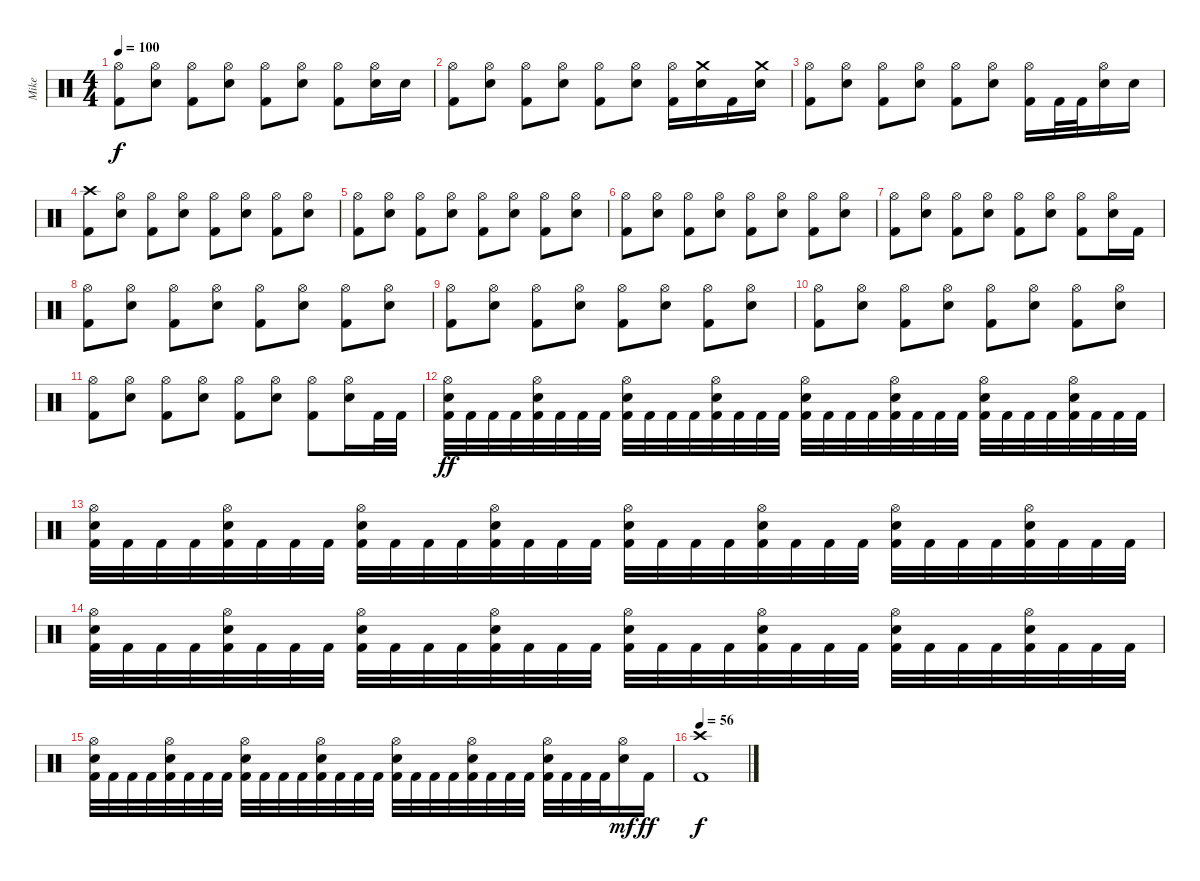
\track ("Mike" "Mike") {instrument percussion}
\staff {score}
\articulation defaults
\ts (4 4)
\tempo 100
\clef neutral
\ks c
("Hi-Hat (open)" "Kick (hit) 2").8{dy f} ("Hi-Hat (open)" "Snare (hit) 2").8 ("Hi-Hat (open)" "Kick (hit) 2").8 ("Hi-Hat (open)" "Snare (hit) 2").8 ("Hi-Hat (open)" "Kick (hit) 2").8 ("Hi-Hat (open)" "Snare (hit) 2").8 ("Hi-Hat (open)" "Kick (hit) 2").8 ("Hi-Hat (open)" "Snare (hit) 2").16 "Snare (hit) 2".16 |
("Hi-Hat (open)" "Kick (hit) 2").8 ("Hi-Hat (open)" "Snare (hit) 2").8 ("Hi-Hat (open)" "Kick (hit) 2").8 ("Hi-Hat (open)" "Snare (hit) 2").8 ("Hi-Hat (open)" "Kick (hit) 2").8 ("Hi-Hat (open)" "Snare (hit) 2").8 ("Hi-Hat (open)" "Kick (hit) 2").16 ("Crash medium (hit)" "Snare (hit) 2").16 "Kick (hit) 2".16 ("Crash medium (hit)" "Snare (hit) 2").16 |
("Hi-Hat (open)" "Kick (hit) 2").8 ("Hi-Hat (open)" "Snare (hit) 2").8 ("Hi-Hat (open)" "Kick (hit) 2").8 ("Hi-Hat (open)" "Snare (hit) 2").8 ("Hi-Hat (open)" "Kick (hit) 2").8 ("Hi-Hat (open)" "Snare (hit) 2").8 ("Hi-Hat (open)" "Kick (hit) 2").16 "Kick (hit) 2".32 "Kick (hit) 2".32 ("Hi-Hat (open)" "Snare (hit) 2").16 "Snare (hit) 2".16 |
("Crash high (hit)" "Kick (hit) 2").8 ("Hi-Hat (open)" "Snare (hit) 2").8 ("Hi-Hat (open)" "Kick (hit) 2").8 ("Hi-Hat (open)" "Snare (hit) 2").8 ("Hi-Hat (open)" "Kick (hit) 2").8 ("Hi-Hat (open)" "Snare (hit) 2").8 ("Hi-Hat (open)" "Kick (hit) 2").8 ("Hi-Hat (open)" "Snare (hit) 2").8 |
("Hi-Hat (open)" "Kick (hit) 2").8 ("Hi-Hat (open)" "Snare (hit) 2").8 ("Hi-Hat (open)" "Kick (hit) 2").8 ("Hi-Hat (open)" "Snare (hit) 2").8 ("Hi-Hat (open)" "Kick (hit) 2").8 ("Hi-Hat (open)" "Snare (hit) 2").8 ("Hi-Hat (open)" "Kick (hit) 2").8 ("Hi-Hat (open)" "Snare (hit) 2").8 |
("Hi-Hat (open)" "Kick (hit) 2").8 ("Hi-Hat (open)" "Snare (hit) 2").8 ("Hi-Hat (open)" "Kick (hit) 2").8 ("Hi-Hat (open)" "Snare (hit) 2").8 ("Hi-Hat (open)" "Kick (hit) 2").8 ("Hi-Hat (open)" "Snare (hit) 2").8 ("Hi-Hat (open)" "Kick (hit) 2").8 ("Hi-Hat (open)" "Snare (hit) 2").8 |
("Hi-Hat (open)" "Kick (hit) 2").8 ("Hi-Hat (open)" "Snare (hit) 2").8 ("Hi-Hat (open)" "Kick (hit) 2").8 ("Hi-Hat (open)" "Snare (hit) 2").8 ("Hi-Hat (open)" "Kick (hit) 2").8 ("Hi-Hat (open)" "Snare (hit) 2").8 ("Hi-Hat (open)" "Kick (hit) 2").8 ("Hi-Hat (open)" "Snare (hit) 2").16 "Kick (hit) 2".16 |
("Hi-Hat (open)" "Kick (hit) 2").8 ("Hi-Hat (open)" "Snare (hit) 2").8 ("Hi-Hat (open)" "Kick (hit) 2").8 ("Hi-Hat (open)" "Snare (hit) 2").8 ("Hi-Hat (open)" "Kick (hit) 2").8 ("Hi-Hat (open)" "Snare (hit) 2").8 ("Hi-Hat (open)" "Kick (hit) 2").8 ("Hi-Hat (open)" "Snare (hit) 2").8 |
("Hi-Hat (open)" "Kick (hit) 2").8 ("Hi-Hat (open)" "Snare (hit) 2").8 ("Hi-Hat (open)" "Kick (hit) 2").8 ("Hi-Hat (open)" "Snare (hit) 2").8 ("Hi-Hat (open)" "Kick (hit) 2").8 ("Hi-Hat (open)" "Snare (hit) 2").8 ("Hi-Hat (open)" "Kick (hit) 2").8 ("Hi-Hat (open)" "Snare (hit) 2").8 |
("Hi-Hat (open)" "Kick (hit) 2").8 ("Hi-Hat (open)" "Snare (hit) 2").8 ("Hi-Hat (open)" "Kick (hit) 2").8 ("Hi-Hat (open)" "Snare (hit) 2").8 ("Hi-Hat (open)" "Kick (hit) 2").8 ("Hi-Hat (open)" "Snare (hit) 2").8 ("Hi-Hat (open)" "Kick (hit) 2").8 ("Hi-Hat (open)" "Snare (hit) 2").8 |
("Hi-Hat (open)" "Kick (hit) 2").8 ("Hi-Hat (open)" "Snare (hit) 2").8 ("Hi-Hat (open)" "Kick (hit) 2").8 ("Hi-Hat (open)" "Snare (hit) 2").8 ("Hi-Hat (open)" "Kick (hit) 2").8 ("Hi-Hat (open)" "Snare (hit) 2").8 ("Hi-Hat (open)" "Kick (hit) 2").8 ("Hi-Hat (open)" "Snare (hit) 2").16 "Kick (hit) 2".32 "Kick (hit) 2".32 |
("Hi-Hat (open)" "Snare (hit) 2" "Kick (hit) 2").32{dy ff} "Kick (hit) 2".32 "Kick (hit) 2".32 "Kick (hit) 2".32 ("Hi-Hat (open)" "Snare (hit) 2" "Kick (hit) 2").32 "Kick (hit) 2".32 "Kick (hit) 2".32 "Kick (hit) 2".32 ("Hi-Hat (open)" "Snare (hit) 2" "Kick (hit) 2").32 "Kick (hit) 2".32 "Kick (hit) 2".32 "Kick (hit) 2".32 ("Hi-Hat (open)" "Snare (hit) 2" "Kick (hit) 2").32 "Kick (hit) 2".32 "Kick (hit) 2".32 "Kick (hit) 2".32 ("Hi-Hat (open)" "Snare (hit) 2" "Kick (hit) 2").32 "Kick (hit) 2".32 "Kick (hit) 2".32 "Kick (hit) 2".32 ("Hi-Hat (open)" "Snare (hit) 2" "Kick (hit) 2").32 "Kick (hit) 2".32 "Kick (hit) 2".32 "Kick (hit) 2".32 ("Hi-Hat (open)" "Snare (hit) 2" "Kick (hit) 2").32 "Kick (hit) 2".32 "Kick (hit) 2".32 "Kick (hit) 2".32 ("Hi-Hat (open)" "Snare (hit) 2" "Kick (hit) 2").32 "Kick (hit) 2".32 "Kick (hit) 2".32 "Kick (hit) 2".32 |
("Hi-Hat (open)" "Snare (hit) 2" "Kick (hit) 2").32 "Kick (hit) 2".32 "Kick (hit) 2".32 "Kick (hit) 2".32 ("Hi-Hat (open)" "Snare (hit) 2" "Kick (hit) 2").32 "Kick (hit) 2".32 "Kick (hit) 2".32 "Kick (hit) 2".32 ("Hi-Hat (open)" "Snare (hit) 2" "Kick (hit) 2").32 "Kick (hit) 2".32 "Kick (hit) 2".32 "Kick (hit) 2".32 ("Hi-Hat (open)" "Snare (hit) 2" "Kick (hit) 2").32 "Kick (hit) 2".32 "Kick (hit) 2".32 "Kick (hit) 2".32 ("Hi-Hat (open)" "Snare (hit) 2" "Kick (hit) 2").32 "Kick (hit) 2".32 "Kick (hit) 2".32 "Kick (hit) 2".32 ("Hi-Hat (open)" "Snare (hit) 2" "Kick (hit) 2").32 "Kick (hit) 2".32 "Kick (hit) 2".32 "Kick (hit) 2".32 ("Hi-Hat (open)" "Snare (hit) 2" "Kick (hit) 2").32 "Kick (hit) 2".32 "Kick (hit) 2".32 "Kick (hit) 2".32 ("Hi-Hat (open)" "Snare (hit) 2" "Kick (hit) 2").32 "Kick (hit) 2".32 "Kick (hit) 2".32 "Kick (hit) 2".32 |
("Hi-Hat (open)" "Snare (hit) 2" "Kick (hit) 2").32 "Kick (hit) 2".32 "Kick (hit) 2".32 "Kick (hit) 2".32 ("Hi-Hat (open)" "Snare (hit) 2" "Kick (hit) 2").32 "Kick (hit) 2".32 "Kick (hit) 2".32 "Kick (hit) 2".32 ("Hi-Hat (open)" "Snare (hit) 2" "Kick (hit) 2").32 "Kick (hit) 2".32 "Kick (hit) 2".32 "Kick (hit) 2".32 ("Hi-Hat (open)" "Snare (hit) 2" "Kick (hit) 2").32 "Kick (hit) 2".32 "Kick (hit) 2".32 "Kick (hit) 2".32 ("Hi-Hat (open)" "Snare (hit) 2" "Kick (hit) 2").32 "Kick (hit) 2".32 "Kick (hit) 2".32 "Kick (hit) 2".32 ("Hi-Hat (open)" "Snare (hit) 2" "Kick (hit) 2").32 "Kick (hit) 2".32 "Kick (hit) 2".32 "Kick (hit) 2".32 ("Hi-Hat (open)" "Snare (hit) 2" "Kick (hit) 2").32 "Kick (hit) 2".32 "Kick (hit) 2".32 "Kick (hit) 2".32 ("Hi-Hat (open)" "Snare (hit) 2" "Kick (hit) 2").32 "Kick (hit) 2".32 "Kick (hit) 2".32 "Kick (hit) 2".32 |
("Hi-Hat (open)" "Snare (hit) 2" "Kick (hit) 2").32 "Kick (hit) 2".32 "Kick (hit) 2".32 "Kick (hit) 2".32 ("Hi-Hat (open)" "Snare (hit) 2" "Kick (hit) 2").32 "Kick (hit) 2".32 "Kick (hit) 2".32 "Kick (hit) 2".32 ("Hi-Hat (open)" "Snare (hit) 2" "Kick (hit) 2").32 "Kick (hit) 2".32 "Kick (hit) 2".32 "Kick (hit) 2".32 ("Hi-Hat (open)" "Snare (hit) 2" "Kick (hit) 2").32 "Kick (hit) 2".32 "Kick (hit) 2".32 "Kick (hit) 2".32 ("Hi-Hat (open)" "Snare (hit) 2" "Kick (hit) 2").32 "Kick (hit) 2".32 "Kick (hit) 2".32 "Kick (hit) 2".32 ("Hi-Hat (open)" "Snare (hit) 2" "Kick (hit) 2").32 "Kick (hit) 2".32 "Kick (hit) 2".32 "Kick (hit) 2".32 ("Hi-Hat (open)" "Snare (hit) 2" "Kick (hit) 2").32 "Kick (hit) 2".32 "Kick (hit) 2".32 "Kick (hit) 2".32 ("Hi-Hat (open)" "Snare (hit) 2").16{dy mf} "Kick (hit) 2".16{dy ff} |
\tempo 56
("Crash high (hit)" "Kick (hit) 2").1{dy f}
